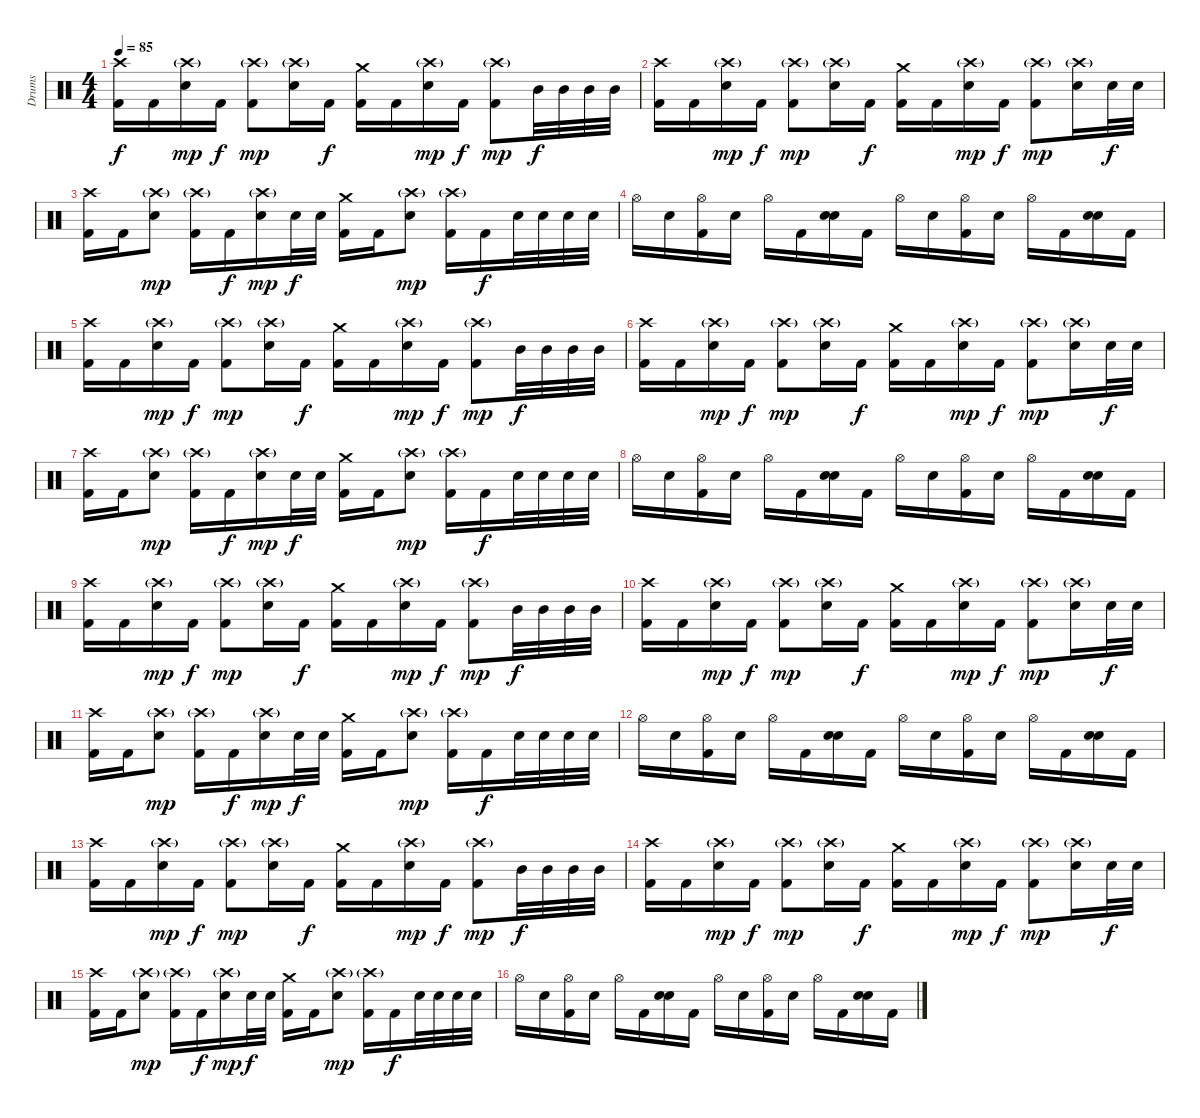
\track ("Drums" "Drums") {instrument percussion}
\staff {score}
\articulation defaults
\ts (4 4)
\tempo 85
\clef neutral
\ks c
("Crash high (hit)" "Kick (hit) 2").16{dy f} "Kick (hit) 2".16 ("Crash high (hit)"{g} "Snare (hit) 2").16{dy mp} "Kick (hit) 2".16{dy f} ("Crash high (hit)"{g} "Kick (hit) 2").8{dy mp} ("Crash high (hit)"{g} "Snare (hit) 2").16 "Kick (hit) 2".16{dy f} ("Crash medium (hit)" "Kick (hit) 2").16 "Kick (hit) 2".16 ("Crash high (hit)"{g} "Snare (hit) 2").16{dy mp} "Kick (hit) 2".16{dy f} ("Crash high (hit)"{g} "Kick (hit) 2").8{dy mp} "Mid Tom (hit)".32{dy f} "Mid Tom (hit)".32 "Mid Tom (hit)".32 "Mid Tom (hit)".32 |
("Crash high (hit)" "Kick (hit) 2").16 "Kick (hit) 2".16 ("Crash high (hit)"{g} "Snare (hit) 2").16{dy mp} "Kick (hit) 2".16{dy f} ("Crash high (hit)"{g} "Kick (hit) 2").8{dy mp} ("Crash high (hit)"{g} "Snare (hit) 2").16 "Kick (hit) 2".16{dy f} ("Crash medium (hit)" "Kick (hit) 2").16 "Kick (hit) 2".16 ("Crash high (hit)"{g} "Snare (hit) 2").16{dy mp} "Kick (hit) 2".16{dy f} ("Crash high (hit)"{g} "Kick (hit) 2").8{dy mp} ("Crash high (hit)"{g} "Snare (hit) 2").16 "Snare (hit) 2".32{dy f} "Snare (hit) 2".32 |
("Crash high (hit)" "Kick (hit) 2").16 "Kick (hit) 2".16 ("Crash high (hit)"{g} "Snare (hit) 2").8{dy mp} ("Crash high (hit)"{g} "Kick (hit) 2").16 "Kick (hit) 2".16{dy f} ("Crash high (hit)"{g} "Snare (hit) 2").16{dy mp} "Snare (hit) 2".32{dy f} "Snare (hit) 2".32 ("Crash medium (hit)" "Kick (hit) 2").16 "Kick (hit) 2".16 ("Crash high (hit)"{g} "Snare (hit) 2").8{dy mp} ("Crash high (hit)"{g} "Kick (hit) 2").16 "Kick (hit) 2".16{dy f} "Snare (hit) 2".32 "Snare (hit) 2".32 "Snare (hit) 2".32 "Snare (hit) 2".32 |
"Hi-Hat (open)".16 "Snare (hit) 2".16 ("Hi-Hat (open)" "Kick (hit) 2").16 "Snare (hit) 2".16 "Hi-Hat (open)".16 "Kick (hit) 2".16 ("Snare (hit) 2" "Snare (hit) 2").16{bd 240} "Kick (hit) 2".16 "Hi-Hat (open)".16 "Snare (hit) 2".16 ("Hi-Hat (open)" "Kick (hit) 2").16 "Snare (hit) 2".16 "Hi-Hat (open)".16 "Kick (hit) 2".16 ("Snare (hit) 2" "Snare (hit) 2").16{bd 240} "Kick (hit) 2".16 |
("Crash high (hit)" "Kick (hit) 2").16 "Kick (hit) 2".16 ("Crash high (hit)"{g} "Snare (hit) 2").16{dy mp} "Kick (hit) 2".16{dy f} ("Crash high (hit)"{g} "Kick (hit) 2").8{dy mp} ("Crash high (hit)"{g} "Snare (hit) 2").16 "Kick (hit) 2".16{dy f} ("Crash medium (hit)" "Kick (hit) 2").16 "Kick (hit) 2".16 ("Crash high (hit)"{g} "Snare (hit) 2").16{dy mp} "Kick (hit) 2".16{dy f} ("Crash high (hit)"{g} "Kick (hit) 2").8{dy mp} "Mid Tom (hit)".32{dy f} "Mid Tom (hit)".32 "Mid Tom (hit)".32 "Mid Tom (hit)".32 |
("Crash high (hit)" "Kick (hit) 2").16 "Kick (hit) 2".16 ("Crash high (hit)"{g} "Snare (hit) 2").16{dy mp} "Kick (hit) 2".16{dy f} ("Crash high (hit)"{g} "Kick (hit) 2").8{dy mp} ("Crash high (hit)"{g} "Snare (hit) 2").16 "Kick (hit) 2".16{dy f} ("Crash medium (hit)" "Kick (hit) 2").16 "Kick (hit) 2".16 ("Crash high (hit)"{g} "Snare (hit) 2").16{dy mp} "Kick (hit) 2".16{dy f} ("Crash high (hit)"{g} "Kick (hit) 2").8{dy mp} ("Crash high (hit)"{g} "Snare (hit) 2").16 "Snare (hit) 2".32{dy f} "Snare (hit) 2".32 |
("Crash high (hit)" "Kick (hit) 2").16 "Kick (hit) 2".16 ("Crash high (hit)"{g} "Snare (hit) 2").8{dy mp} ("Crash high (hit)"{g} "Kick (hit) 2").16 "Kick (hit) 2".16{dy f} ("Crash high (hit)"{g} "Snare (hit) 2").16{dy mp} "Snare (hit) 2".32{dy f} "Snare (hit) 2".32 ("Crash medium (hit)" "Kick (hit) 2").16 "Kick (hit) 2".16 ("Crash high (hit)"{g} "Snare (hit) 2").8{dy mp} ("Crash high (hit)"{g} "Kick (hit) 2").16 "Kick (hit) 2".16{dy f} "Snare (hit) 2".32 "Snare (hit) 2".32 "Snare (hit) 2".32 "Snare (hit) 2".32 |
"Hi-Hat (open)".16 "Snare (hit) 2".16 ("Hi-Hat (open)" "Kick (hit) 2").16 "Snare (hit) 2".16 "Hi-Hat (open)".16 "Kick (hit) 2".16 ("Snare (hit) 2" "Snare (hit) 2").16{bd 240} "Kick (hit) 2".16 "Hi-Hat (open)".16 "Snare (hit) 2".16 ("Hi-Hat (open)" "Kick (hit) 2").16 "Snare (hit) 2".16 "Hi-Hat (open)".16 "Kick (hit) 2".16 ("Snare (hit) 2" "Snare (hit) 2").16{bd 240} "Kick (hit) 2".16 |
("Crash high (hit)" "Kick (hit) 2").16 "Kick (hit) 2".16 ("Crash high (hit)"{g} "Snare (hit) 2").16{dy mp} "Kick (hit) 2".16{dy f} ("Crash high (hit)"{g} "Kick (hit) 2").8{dy mp} ("Crash high (hit)"{g} "Snare (hit) 2").16 "Kick (hit) 2".16{dy f} ("Crash medium (hit)" "Kick (hit) 2").16 "Kick (hit) 2".16 ("Crash high (hit)"{g} "Snare (hit) 2").16{dy mp} "Kick (hit) 2".16{dy f} ("Crash high (hit)"{g} "Kick (hit) 2").8{dy mp} "Mid Tom (hit)".32{dy f} "Mid Tom (hit)".32 "Mid Tom (hit)".32 "Mid Tom (hit)".32 |
("Crash high (hit)" "Kick (hit) 2").16 "Kick (hit) 2".16 ("Crash high (hit)"{g} "Snare (hit) 2").16{dy mp} "Kick (hit) 2".16{dy f} ("Crash high (hit)"{g} "Kick (hit) 2").8{dy mp} ("Crash high (hit)"{g} "Snare (hit) 2").16 "Kick (hit) 2".16{dy f} ("Crash medium (hit)" "Kick (hit) 2").16 "Kick (hit) 2".16 ("Crash high (hit)"{g} "Snare (hit) 2").16{dy mp} "Kick (hit) 2".16{dy f} ("Crash high (hit)"{g} "Kick (hit) 2").8{dy mp} ("Crash high (hit)"{g} "Snare (hit) 2").16 "Snare (hit) 2".32{dy f} "Snare (hit) 2".32 |
("Crash high (hit)" "Kick (hit) 2").16 "Kick (hit) 2".16 ("Crash high (hit)"{g} "Snare (hit) 2").8{dy mp} ("Crash high (hit)"{g} "Kick (hit) 2").16 "Kick (hit) 2".16{dy f} ("Crash high (hit)"{g} "Snare (hit) 2").16{dy mp} "Snare (hit) 2".32{dy f} "Snare (hit) 2".32 ("Crash medium (hit)" "Kick (hit) 2").16 "Kick (hit) 2".16 ("Crash high (hit)"{g} "Snare (hit) 2").8{dy mp} ("Crash high (hit)"{g} "Kick (hit) 2").16 "Kick (hit) 2".16{dy f} "Snare (hit) 2".32 "Snare (hit) 2".32 "Snare (hit) 2".32 "Snare (hit) 2".32 |
"Hi-Hat (open)".16 "Snare (hit) 2".16 ("Hi-Hat (open)" "Kick (hit) 2").16 "Snare (hit) 2".16 "Hi-Hat (open)".16 "Kick (hit) 2".16 ("Snare (hit) 2" "Snare (hit) 2").16{bd 240} "Kick (hit) 2".16 "Hi-Hat (open)".16 "Snare (hit) 2".16 ("Hi-Hat (open)" "Kick (hit) 2").16 "Snare (hit) 2".16 "Hi-Hat (open)".16 "Kick (hit) 2".16 ("Snare (hit) 2" "Snare (hit) 2").16{bd 240} "Kick (hit) 2".16 |
("Crash high (hit)" "Kick (hit) 2").16 "Kick (hit) 2".16 ("Crash high (hit)"{g} "Snare (hit) 2").16{dy mp} "Kick (hit) 2".16{dy f} ("Crash high (hit)"{g} "Kick (hit) 2").8{dy mp} ("Crash high (hit)"{g} "Snare (hit) 2").16 "Kick (hit) 2".16{dy f} ("Crash medium (hit)" "Kick (hit) 2").16 "Kick (hit) 2".16 ("Crash high (hit)"{g} "Snare (hit) 2").16{dy mp} "Kick (hit) 2".16{dy f} ("Crash high (hit)"{g} "Kick (hit) 2").8{dy mp} "Mid Tom (hit)".32{dy f} "Mid Tom (hit)".32 "Mid Tom (hit)".32 "Mid Tom (hit)".32 |
("Crash high (hit)" "Kick (hit) 2").16 "Kick (hit) 2".16 ("Crash high (hit)"{g} "Snare (hit) 2").16{dy mp} "Kick (hit) 2".16{dy f} ("Crash high (hit)"{g} "Kick (hit) 2").8{dy mp} ("Crash high (hit)"{g} "Snare (hit) 2").16 "Kick (hit) 2".16{dy f} ("Crash medium (hit)" "Kick (hit) 2").16 "Kick (hit) 2".16 ("Crash high (hit)"{g} "Snare (hit) 2").16{dy mp} "Kick (hit) 2".16{dy f} ("Crash high (hit)"{g} "Kick (hit) 2").8{dy mp} ("Crash high (hit)"{g} "Snare (hit) 2").16 "Snare (hit) 2".32{dy f} "Snare (hit) 2".32 |
("Crash high (hit)" "Kick (hit) 2").16 "Kick (hit) 2".16 ("Crash high (hit)"{g} "Snare (hit) 2").8{dy mp} ("Crash high (hit)"{g} "Kick (hit) 2").16 "Kick (hit) 2".16{dy f} ("Crash high (hit)"{g} "Snare (hit) 2").16{dy mp} "Snare (hit) 2".32{dy f} "Snare (hit) 2".32 ("Crash medium (hit)" "Kick (hit) 2").16 "Kick (hit) 2".16 ("Crash high (hit)"{g} "Snare (hit) 2").8{dy mp} ("Crash high (hit)"{g} "Kick (hit) 2").16 "Kick (hit) 2".16{dy f} "Snare (hit) 2".32 "Snare (hit) 2".32 "Snare (hit) 2".32 "Snare (hit) 2".32 |
"Hi-Hat (open)".16 "Snare (hit) 2".16 ("Hi-Hat (open)" "Kick (hit) 2").16 "Snare (hit) 2".16 "Hi-Hat (open)".16 "Kick (hit) 2".16 ("Snare (hit) 2" "Snare (hit) 2").16{bd 240} "Kick (hit) 2".16 "Hi-Hat (open)".16 "Snare (hit) 2".16 ("Hi-Hat (open)" "Kick (hit) 2").16 "Snare (hit) 2".16 "Hi-Hat (open)".16 "Kick (hit) 2".16 ("Snare (hit) 2" "Snare (hit) 2").16{bd 240} "Kick (hit) 2".16
